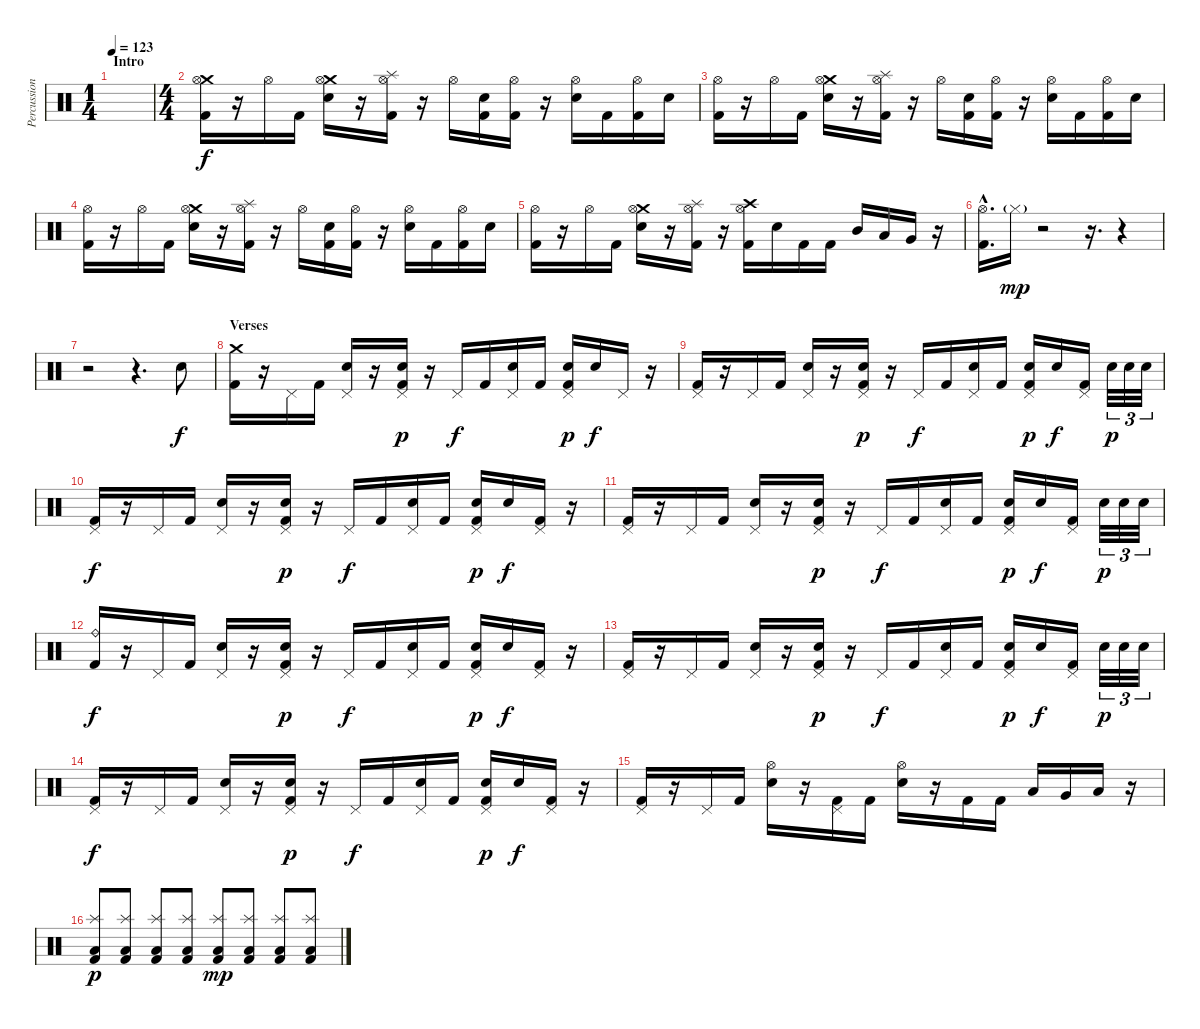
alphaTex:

\track ("Percussion" "Percussion") {instrument percussion}
\staff {score}
\articulation defaults
\ts (1 4)
\section ("" "Intro")
\tempo 123
\clef neutral
\ks c
|
\ts (4 4)
("Crash medium (hit)" "Hi-Hat (open)" "Kick (hit) 2").16 r.16 "Hi-Hat (open)".16 "Kick (hit) 2".16 ("Crash medium (hit)" "Hi-Hat (open)" "Electric Snare (hit)").16 r.16 ("Splash (hit)" "Hi-Hat (open)" "Kick (hit) 2").16 r.16 "Hi-Hat (open)".16 ("Electric Snare (hit)" "Kick (hit) 2").16 ("Hi-Hat (open)" "Kick (hit) 2").16 r.16 ("Hi-Hat (open)" "Electric Snare (hit)").16 "Kick (hit) 2".16 ("Hi-Hat (open)" "Kick (hit) 2").16 "Electric Snare (hit)".16 |
("Hi-Hat (open)" "Kick (hit) 2").16 r.16 "Hi-Hat (open)".16 "Kick (hit) 2".16 ("Crash medium (hit)" "Hi-Hat (open)" "Electric Snare (hit)").16 r.16 ("Splash (hit)" "Hi-Hat (open)" "Kick (hit) 2").16 r.16 "Hi-Hat (open)".16 ("Electric Snare (hit)" "Kick (hit) 2").16 ("Hi-Hat (open)" "Kick (hit) 2").16 r.16 ("Hi-Hat (open)" "Electric Snare (hit)").16 "Kick (hit) 2".16 ("Hi-Hat (open)" "Kick (hit) 2").16 "Electric Snare (hit)".16 |
("Hi-Hat (open)" "Kick (hit) 2").16 r.16 "Hi-Hat (open)".16 "Kick (hit) 2".16 ("Crash medium (hit)" "Hi-Hat (open)" "Electric Snare (hit)").16 r.16 ("Splash (hit)" "Hi-Hat (open)" "Kick (hit) 2").16 r.16 "Hi-Hat (open)".16 ("Electric Snare (hit)" "Kick (hit) 2").16 ("Hi-Hat (open)" "Kick (hit) 2").16 r.16 ("Hi-Hat (open)" "Electric Snare (hit)").16 "Kick (hit) 2".16 ("Hi-Hat (open)" "Kick (hit) 2").16 "Electric Snare (hit)".16 |
("Hi-Hat (open)" "Kick (hit) 2").16 r.16 "Hi-Hat (open)".16 "Kick (hit) 2".16 ("Crash medium (hit)" "Hi-Hat (open)" "Electric Snare (hit)").16 r.16 ("Splash (hit)" "Hi-Hat (open)" "Kick (hit) 2").16 r.16 ("Hi-Hat (open)" "Crash high (hit)" "Kick (hit) 2").16 "Electric Snare (hit)".16 "Kick (hit) 2".16 "Kick (hit) 2".16 "Mid Tom (hit)".16 "Low Tom (hit)".16 "Very Low Tom (hit)".16 r.16 |
("Hi-Hat (open)"{hac} "Kick (hit) 2"{hac}).16{d} "Hi-Hat (closed)"{g}.16{dy mp} r.2 r.16{d} r.4 |
r.2 r.4{d} "Electric Snare (hit)".8{dy f} |
\section ("" "Verses")
("Crash medium (hit)" "Kick (hit) 2").16 r.16 "Pedal Hi-Hat (hit)".16 "Kick (hit) 2".16 ("Pedal Hi-Hat (hit)" "Electric Snare (hit)").16 r.16 ("Pedal Hi-Hat (hit)" "Electric Snare (hit)" "Kick (hit) 2").16{dy p} r.16 "Pedal Hi-Hat (hit)".16{dy f} "Kick (hit) 2".16 ("Pedal Hi-Hat (hit)" "Electric Snare (hit)").16 "Kick (hit) 2".16 ("Pedal Hi-Hat (hit)" "Electric Snare (hit)" "Kick (hit) 2").16{dy p} "Electric Snare (hit)".16{dy f} "Pedal Hi-Hat (hit)".16 r.16 |
("Pedal Hi-Hat (hit)" "Kick (hit) 2").16 r.16 "Pedal Hi-Hat (hit)".16 "Kick (hit) 2".16 ("Pedal Hi-Hat (hit)" "Electric Snare (hit)").16 r.16 ("Pedal Hi-Hat (hit)" "Electric Snare (hit)" "Kick (hit) 2").16{dy p} r.16 "Pedal Hi-Hat (hit)".16{dy f} "Kick (hit) 2".16 ("Pedal Hi-Hat (hit)" "Electric Snare (hit)").16 "Kick (hit) 2".16 ("Pedal Hi-Hat (hit)" "Electric Snare (hit)" "Kick (hit) 2").16{dy p} "Electric Snare (hit)".16{dy f} ("Pedal Hi-Hat (hit)" "Kick (hit) 2").16 "Electric Snare (hit)".32{tu (3 2) dy p} "Electric Snare (hit)".32{tu (3 2)} "Electric Snare (hit)".32{tu (3 2)} |
("Pedal Hi-Hat (hit)" "Kick (hit) 2").16{dy f} r.16 "Pedal Hi-Hat (hit)".16 "Kick (hit) 2".16 ("Pedal Hi-Hat (hit)" "Electric Snare (hit)").16 r.16 ("Pedal Hi-Hat (hit)" "Electric Snare (hit)" "Kick (hit) 2").16{dy p} r.16 "Pedal Hi-Hat (hit)".16{dy f} "Kick (hit) 2".16 ("Pedal Hi-Hat (hit)" "Electric Snare (hit)").16 "Kick (hit) 2".16 ("Pedal Hi-Hat (hit)" "Electric Snare (hit)" "Kick (hit) 2").16{dy p} "Electric Snare (hit)".16{dy f} ("Pedal Hi-Hat (hit)" "Kick (hit) 2").16 r.16 |
("Pedal Hi-Hat (hit)" "Kick (hit) 2").16 r.16 "Pedal Hi-Hat (hit)".16 "Kick (hit) 2".16 ("Pedal Hi-Hat (hit)" "Electric Snare (hit)").16 r.16 ("Pedal Hi-Hat (hit)" "Electric Snare (hit)" "Kick (hit) 2").16{dy p} r.16 "Pedal Hi-Hat (hit)".16{dy f} "Kick (hit) 2".16 ("Pedal Hi-Hat (hit)" "Electric Snare (hit)").16 "Kick (hit) 2".16 ("Pedal Hi-Hat (hit)" "Electric Snare (hit)" "Kick (hit) 2").16{dy p} "Electric Snare (hit)".16{dy f} ("Pedal Hi-Hat (hit)" "Kick (hit) 2").16 "Electric Snare (hit)".32{tu (3 2) dy p} "Electric Snare (hit)".32{tu (3 2)} "Electric Snare (hit)".32{tu (3 2)} |
("Ride (bell)" "Kick (hit) 2").16{dy f} r.16 "Pedal Hi-Hat (hit)".16 "Kick (hit) 2".16 ("Pedal Hi-Hat (hit)" "Electric Snare (hit)").16 r.16 ("Pedal Hi-Hat (hit)" "Electric Snare (hit)" "Kick (hit) 2").16{dy p} r.16 "Pedal Hi-Hat (hit)".16{dy f} "Kick (hit) 2".16 ("Pedal Hi-Hat (hit)" "Electric Snare (hit)").16 "Kick (hit) 2".16 ("Pedal Hi-Hat (hit)" "Electric Snare (hit)" "Kick (hit) 2").16{dy p} "Electric Snare (hit)".16{dy f} ("Pedal Hi-Hat (hit)" "Kick (hit) 2").16 r.16 |
("Pedal Hi-Hat (hit)" "Kick (hit) 2").16 r.16 "Pedal Hi-Hat (hit)".16 "Kick (hit) 2".16 ("Pedal Hi-Hat (hit)" "Electric Snare (hit)").16 r.16 ("Pedal Hi-Hat (hit)" "Electric Snare (hit)" "Kick (hit) 2").16{dy p} r.16 "Pedal Hi-Hat (hit)".16{dy f} "Kick (hit) 2".16 ("Pedal Hi-Hat (hit)" "Electric Snare (hit)").16 "Kick (hit) 2".16 ("Pedal Hi-Hat (hit)" "Electric Snare (hit)" "Kick (hit) 2").16{dy p} "Electric Snare (hit)".16{dy f} ("Pedal Hi-Hat (hit)" "Kick (hit) 2").16 "Electric Snare (hit)".32{tu (3 2) dy p} "Electric Snare (hit)".32{tu (3 2)} "Electric Snare (hit)".32{tu (3 2)} |
("Pedal Hi-Hat (hit)" "Kick (hit) 2").16{dy f} r.16 "Pedal Hi-Hat (hit)".16 "Kick (hit) 2".16 ("Pedal Hi-Hat (hit)" "Electric Snare (hit)").16 r.16 ("Pedal Hi-Hat (hit)" "Electric Snare (hit)" "Kick (hit) 2").16{dy p} r.16 "Pedal Hi-Hat (hit)".16{dy f} "Kick (hit) 2".16 ("Pedal Hi-Hat (hit)" "Electric Snare (hit)").16 "Kick (hit) 2".16 ("Pedal Hi-Hat (hit)" "Electric Snare (hit)" "Kick (hit) 2").16{dy p} "Electric Snare (hit)".16{dy f} ("Pedal Hi-Hat (hit)" "Kick (hit) 2").16 r.16 |
("Pedal Hi-Hat (hit)" "Kick (hit) 2").16 r.16 "Pedal Hi-Hat (hit)".16 "Kick (hit) 2".16 ("Hi-Hat (open)" "Electric Snare (hit)").16 r.16 ("Pedal Hi-Hat (hit)" "Kick (hit) 2").16 "Kick (hit) 2".16 ("Hi-Hat (open)" "Electric Snare (hit)").16 r.16 "Kick (hit) 2".16 "Kick (hit) 2".16 "Low Tom (hit)".16 "Very Low Tom (hit)".16 "Low Floor Tom (hit)".16 r.16 |
("Splash (hit)" "Low Floor Tom (hit)" "Kick (hit) 2").8{dy p} ("Splash (hit)" "Low Floor Tom (hit)" "Kick (hit) 2").8 ("Splash (hit)" "Low Floor Tom (hit)" "Kick (hit) 2").8 ("Splash (hit)" "Low Floor Tom (hit)" "Kick (hit) 2").8 ("Splash (hit)" "Low Floor Tom (hit)" "Kick (hit) 2").8{dy mp} ("Splash (hit)" "Low Floor Tom (hit)" "Kick (hit) 2").8 ("Splash (hit)" "Low Floor Tom (hit)" "Kick (hit) 2").8 ("Splash (hit)" "Low Floor Tom (hit)" "Kick (hit) 2").8
